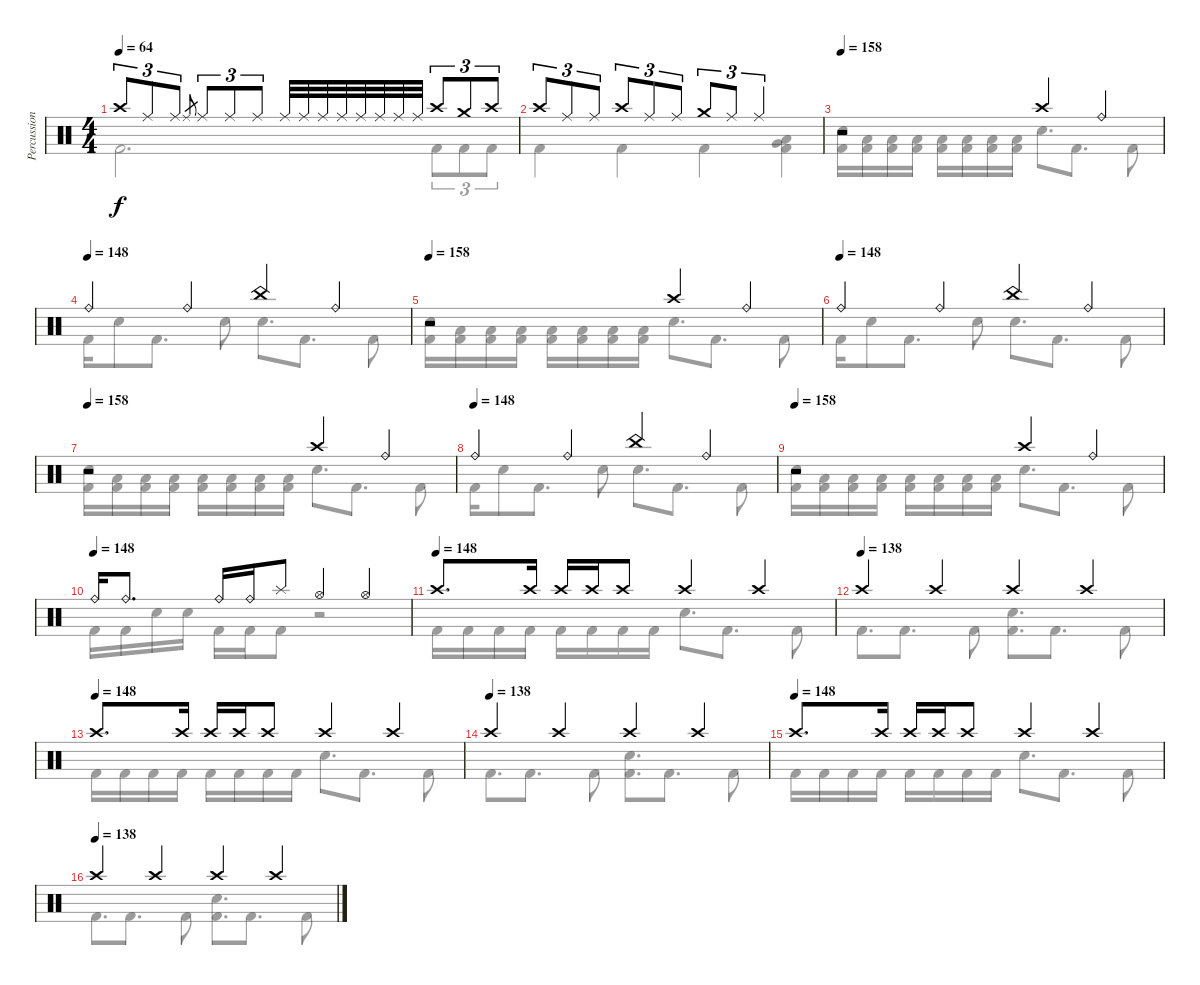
\track ("Percussion" "Percussion") {instrument percussion}
\staff {score}
\articulation defaults
\voice
\ts (4 4)
\tempo 64
\clef neutral
\ks c "Crash high (hit)".8{tu (3 2) dy f} "Ride (middle)".8{tu (3 2)} "Ride (middle)".8{tu (3 2)} "Ride (middle)".8{gr} "Ride (middle)".8{tu (3 2)} "Ride (middle)".8{tu (3 2)} "Ride (middle)".8{tu (3 2)} "Ride (middle)".32 "Ride (middle)".32 "Ride (middle)".32 "Ride (middle)".32 "Ride (middle)".32 "Ride (middle)".32 "Ride (middle)".32 "Ride (middle)".32 "Crash high (hit)".8{tu (3 2)} "Crash medium (hit)".8{tu (3 2)} "Crash high (hit)".8{tu (3 2)}
|
"Crash high (hit)".8{tu (3 2)} "Ride (middle)".8{tu (3 2)} "Ride (middle)".8{tu (3 2)} "Crash high (hit)".8{tu (3 2)} "Ride (middle)".8{tu (3 2)} "Ride (middle)".8{tu (3 2)} "Crash medium (hit)".8{tu (3 2)} "Ride (middle)".8{tu (3 2)} "Ride (middle)".2{tu (3 2)} |
\tempo 158
r.2 "Crash high (hit)".4 "Ride (bell)".4 |
\tempo (148)
"Ride (bell)".4 "Ride (bell)".4 "China (hit)".4 "Ride (bell)".4 |
\tempo 158
r.2 "Crash high (hit)".4 "Ride (bell)".4 |
\tempo (148)
"Ride (bell)".4 "Ride (bell)".4 "China (hit)".4 "Ride (bell)".4 |
\tempo 158
r.2 "Crash high (hit)".4 "Ride (bell)".4 |
\tempo (148)
"Ride (bell)".4 "Ride (bell)".4 "China (hit)".4 "Ride (bell)".4 |
\tempo 158
r.2 "Crash high (hit)".4 "Ride (bell)".4 |
\tempo (148)
"Ride (bell)".16 "Ride (bell)".8{d} "Ride (bell)".16 "Ride (bell)".16 "Splash (hit)".8 "Hi-Hat (open)".4 "Hi-Hat (open)".4 |
\tempo (148)
"Crash high (hit)".8{d} "Crash high (hit)".16 "Crash high (hit)".16 "Crash high (hit)".16 "Crash high (hit)".8 "Crash high (hit)".4 "Crash high (hit)".4 |
\tempo (138)
"Crash high (hit)".4 "Crash high (hit)".4 "Crash high (hit)".4 "Crash high (hit)".4 |
\tempo (148)
"Crash high (hit)".8{d} "Crash high (hit)".16 "Crash high (hit)".16 "Crash high (hit)".16 "Crash high (hit)".8 "Crash high (hit)".4 "Crash high (hit)".4 |
\tempo (138)
"Crash high (hit)".4 "Crash high (hit)".4 "Crash high (hit)".4 "Crash high (hit)".4 |
\tempo (148)
"Crash high (hit)".8{d} "Crash high (hit)".16 "Crash high (hit)".16 "Crash high (hit)".16 "Crash high (hit)".8 "Crash high (hit)".4 "Crash high (hit)".4 |
\tempo (138)
"Crash high (hit)".4 "Crash high (hit)".4 "Crash high (hit)".4 "Crash high (hit)".4
\voice
\clef neutral
\ottava regular
\simile none
\ks c "Kick (hit) 2".2{d dy f} "Kick (hit) 2".8{tu (3 2)} "Kick (hit) 2".8{tu (3 2)} "Kick (hit) 2".8{tu (3 2)}
|
"Kick (hit) 2".4 "Kick (hit) 2".4 "Kick (hit) 2".4 ("Low Tom (hit)" "Very Low Tom (hit)" "Kick (hit) 2").4 |
("Electric Snare (hit)" "Kick (hit) 2").16 ("Low Floor Tom (hit)" "Kick (hit) 2").16 ("Low Floor Tom (hit)" "Kick (hit) 2").16 ("Low Floor Tom (hit)" "Kick (hit) 2").16 ("Low Floor Tom (hit)" "Kick (hit) 2").16 ("Low Floor Tom (hit)" "Kick (hit) 2").16 ("Low Floor Tom (hit)" "Kick (hit) 2").16 ("Low Floor Tom (hit)" "Kick (hit) 2").16 "Electric Snare (hit)".8{d} "Kick (hit) 2".8{d} "Kick (hit) 2".8 |
"Kick (hit) 2".16 "Electric Snare (hit)".8 "Kick (hit) 2".8{d} "Electric Snare (hit)".8 "Electric Snare (hit)".8{d} "Kick (hit) 2".8{d} "Kick (hit) 2".8 |
("Electric Snare (hit)" "Kick (hit) 2").16 ("Low Floor Tom (hit)" "Kick (hit) 2").16 ("Low Floor Tom (hit)" "Kick (hit) 2").16 ("Low Floor Tom (hit)" "Kick (hit) 2").16 ("Low Floor Tom (hit)" "Kick (hit) 2").16 ("Low Floor Tom (hit)" "Kick (hit) 2").16 ("Low Floor Tom (hit)" "Kick (hit) 2").16 ("Low Floor Tom (hit)" "Kick (hit) 2").16 "Electric Snare (hit)".8{d} "Kick (hit) 2".8{d} "Kick (hit) 2".8 |
"Kick (hit) 2".16 "Electric Snare (hit)".8 "Kick (hit) 2".8{d} "Electric Snare (hit)".8 "Electric Snare (hit)".8{d} "Kick (hit) 2".8{d} "Kick (hit) 2".8 |
("Electric Snare (hit)" "Kick (hit) 2").16 ("Low Floor Tom (hit)" "Kick (hit) 2").16 ("Low Floor Tom (hit)" "Kick (hit) 2").16 ("Low Floor Tom (hit)" "Kick (hit) 2").16 ("Low Floor Tom (hit)" "Kick (hit) 2").16 ("Low Floor Tom (hit)" "Kick (hit) 2").16 ("Low Floor Tom (hit)" "Kick (hit) 2").16 ("Low Floor Tom (hit)" "Kick (hit) 2").16 "Electric Snare (hit)".8{d} "Kick (hit) 2".8{d} "Kick (hit) 2".8 |
"Kick (hit) 2".16 "Electric Snare (hit)".8 "Kick (hit) 2".8{d} "Electric Snare (hit)".8 "Electric Snare (hit)".8{d} "Kick (hit) 2".8{d} "Kick (hit) 2".8 |
("Electric Snare (hit)" "Kick (hit) 2").16 ("Low Floor Tom (hit)" "Kick (hit) 2").16 ("Low Floor Tom (hit)" "Kick (hit) 2").16 ("Low Floor Tom (hit)" "Kick (hit) 2").16 ("Low Floor Tom (hit)" "Kick (hit) 2").16 ("Low Floor Tom (hit)" "Kick (hit) 2").16 ("Low Floor Tom (hit)" "Kick (hit) 2").16 ("Low Floor Tom (hit)" "Kick (hit) 2").16 "Electric Snare (hit)".8{d} "Kick (hit) 2".8{d} "Kick (hit) 2".8 |
"Kick (hit) 2".16 "Kick (hit) 2".16 "Electric Snare (hit)".16 "Electric Snare (hit)".16 "Kick (hit) 2".16 "Kick (hit) 2".16 "Kick (hit) 2".8 r.2 |
"Kick (hit) 2".16 "Kick (hit) 2".16 "Kick (hit) 2".16 "Kick (hit) 2".16 "Kick (hit) 2".16 "Kick (hit) 2".16 "Kick (hit) 2".16 "Kick (hit) 2".16 "Electric Snare (hit)".8{d} "Kick (hit) 2".8{d} "Kick (hit) 2".8 |
"Kick (hit) 2".8{d} "Kick (hit) 2".8{d} "Kick (hit) 2".8 ("Electric Snare (hit)" "Kick (hit) 2").8{d} "Kick (hit) 2".8{d} "Kick (hit) 2".8 |
"Kick (hit) 2".16 "Kick (hit) 2".16 "Kick (hit) 2".16 "Kick (hit) 2".16 "Kick (hit) 2".16 "Kick (hit) 2".16 "Kick (hit) 2".16 "Kick (hit) 2".16 "Electric Snare (hit)".8{d} "Kick (hit) 2".8{d} "Kick (hit) 2".8 |
"Kick (hit) 2".8{d} "Kick (hit) 2".8{d} "Kick (hit) 2".8 ("Electric Snare (hit)" "Kick (hit) 2").8{d} "Kick (hit) 2".8{d} "Kick (hit) 2".8 |
"Kick (hit) 2".16 "Kick (hit) 2".16 "Kick (hit) 2".16 "Kick (hit) 2".16 "Kick (hit) 2".16 "Kick (hit) 2".16 "Kick (hit) 2".16 "Kick (hit) 2".16 "Electric Snare (hit)".8{d} "Kick (hit) 2".8{d} "Kick (hit) 2".8 |
"Kick (hit) 2".8{d} "Kick (hit) 2".8{d} "Kick (hit) 2".8 ("Electric Snare (hit)" "Kick (hit) 2").8{d} "Kick (hit) 2".8{d} "Kick (hit) 2".8
